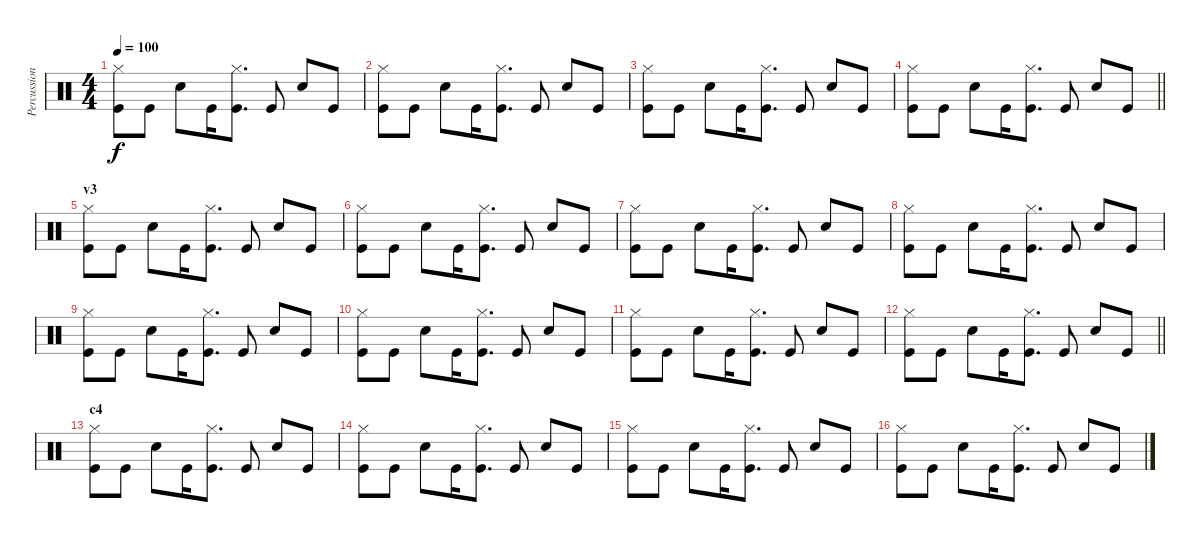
\track ("Percussion" "Percussion") {instrument percussion}
\staff {score}
\articulation defaults
\ts (4 4)
\tempo 100
\clef neutral
\ks c
("Hi-Hat (closed)" "Kick (hit)").8{dy f} "Kick (hit)".8 "Snare (hit) 2".8 "Kick (hit)".16 ("Hi-Hat (closed)" "Kick (hit)").8{d} "Kick (hit)".8 "Snare (hit) 2".8 "Kick (hit)".8 |
("Hi-Hat (closed)" "Kick (hit)").8 "Kick (hit)".8 "Snare (hit) 2".8 "Kick (hit)".16 ("Hi-Hat (closed)" "Kick (hit)").8{d} "Kick (hit)".8 "Snare (hit) 2".8 "Kick (hit)".8 |
("Hi-Hat (closed)" "Kick (hit)").8 "Kick (hit)".8 "Snare (hit) 2".8 "Kick (hit)".16 ("Hi-Hat (closed)" "Kick (hit)").8{d} "Kick (hit)".8 "Snare (hit) 2".8 "Kick (hit)".8 |
\barLineRight lightlight
("Hi-Hat (closed)" "Kick (hit)").8 "Kick (hit)".8 "Snare (hit) 2".8 "Kick (hit)".16 ("Hi-Hat (closed)" "Kick (hit)").8{d} "Kick (hit)".8 "Snare (hit) 2".8 "Kick (hit)".8 |
\section ("" "v3")
("Hi-Hat (closed)" "Kick (hit)").8 "Kick (hit)".8 "Snare (hit) 2".8 "Kick (hit)".16 ("Hi-Hat (closed)" "Kick (hit)").8{d} "Kick (hit)".8 "Snare (hit) 2".8 "Kick (hit)".8 |
("Hi-Hat (closed)" "Kick (hit)").8 "Kick (hit)".8 "Snare (hit) 2".8 "Kick (hit)".16 ("Hi-Hat (closed)" "Kick (hit)").8{d} "Kick (hit)".8 "Snare (hit) 2".8 "Kick (hit)".8 |
("Hi-Hat (closed)" "Kick (hit)").8 "Kick (hit)".8 "Snare (hit) 2".8 "Kick (hit)".16 ("Hi-Hat (closed)" "Kick (hit)").8{d} "Kick (hit)".8 "Snare (hit) 2".8 "Kick (hit)".8 |
("Hi-Hat (closed)" "Kick (hit)").8 "Kick (hit)".8 "Snare (hit) 2".8 "Kick (hit)".16 ("Hi-Hat (closed)" "Kick (hit)").8{d} "Kick (hit)".8 "Snare (hit) 2".8 "Kick (hit)".8 |
("Hi-Hat (closed)" "Kick (hit)").8 "Kick (hit)".8 "Snare (hit) 2".8 "Kick (hit)".16 ("Hi-Hat (closed)" "Kick (hit)").8{d} "Kick (hit)".8 "Snare (hit) 2".8 "Kick (hit)".8 |
("Hi-Hat (closed)" "Kick (hit)").8 "Kick (hit)".8 "Snare (hit) 2".8 "Kick (hit)".16 ("Hi-Hat (closed)" "Kick (hit)").8{d} "Kick (hit)".8 "Snare (hit) 2".8 "Kick (hit)".8 |
("Hi-Hat (closed)" "Kick (hit)").8 "Kick (hit)".8 "Snare (hit) 2".8 "Kick (hit)".16 ("Hi-Hat (closed)" "Kick (hit)").8{d} "Kick (hit)".8 "Snare (hit) 2".8 "Kick (hit)".8 |
\barLineRight lightlight
("Hi-Hat (closed)" "Kick (hit)").8 "Kick (hit)".8 "Snare (hit) 2".8 "Kick (hit)".16 ("Hi-Hat (closed)" "Kick (hit)").8{d} "Kick (hit)".8 "Snare (hit) 2".8 "Kick (hit)".8 |
\section ("" "c4")
("Hi-Hat (closed)" "Kick (hit)").8 "Kick (hit)".8 "Snare (hit) 2".8 "Kick (hit)".16 ("Hi-Hat (closed)" "Kick (hit)").8{d} "Kick (hit)".8 "Snare (hit) 2".8 "Kick (hit)".8 |
("Hi-Hat (closed)" "Kick (hit)").8 "Kick (hit)".8 "Snare (hit) 2".8 "Kick (hit)".16 ("Hi-Hat (closed)" "Kick (hit)").8{d} "Kick (hit)".8 "Snare (hit) 2".8 "Kick (hit)".8 |
("Hi-Hat (closed)" "Kick (hit)").8 "Kick (hit)".8 "Snare (hit) 2".8 "Kick (hit)".16 ("Hi-Hat (closed)" "Kick (hit)").8{d} "Kick (hit)".8 "Snare (hit) 2".8 "Kick (hit)".8 |
("Hi-Hat (closed)" "Kick (hit)").8 "Kick (hit)".8 "Snare (hit) 2".8 "Kick (hit)".16 ("Hi-Hat (closed)" "Kick (hit)").8{d} "Kick (hit)".8 "Snare (hit) 2".8 "Kick (hit)".8
